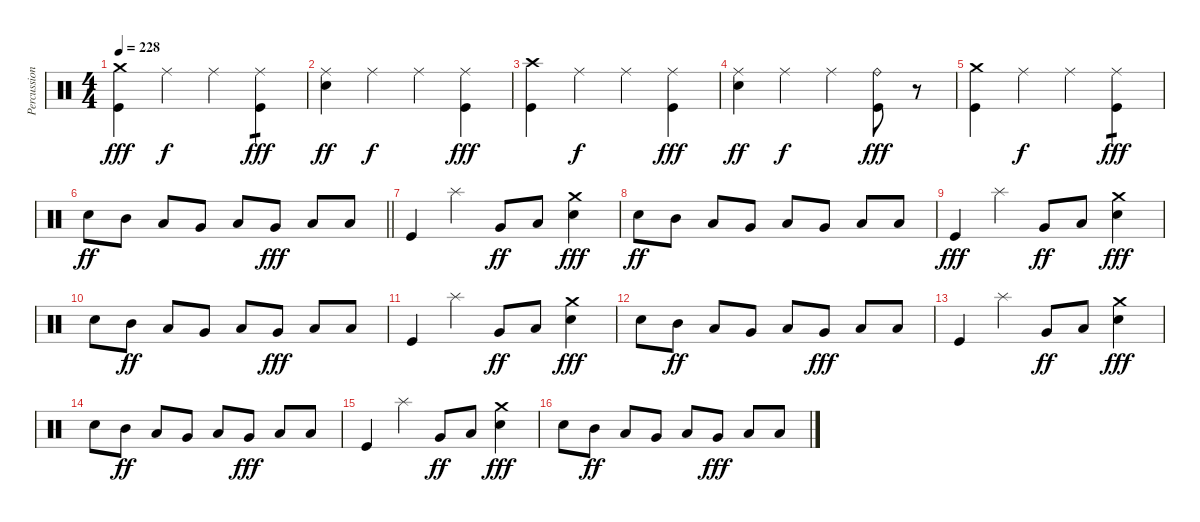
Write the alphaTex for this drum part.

\track ("Percussion" "Percussion") {instrument percussion}
\staff {score}
\articulation defaults
\ts (4 4)
\tempo 228
\clef neutral
\ks c
("Crash medium (hit)" "Kick (hit)").4{dy fff} "Ride (middle)".4{dy f} "Ride (middle)".4 ("Ride (middle)" "Kick (hit)").4{tp 1 dy fff} |
("Ride (middle)" "Snare (hit) 2").4{dy ff} "Ride (middle)".4{dy f} "Ride (middle)".4 ("Ride (middle)" "Kick (hit)").4{dy fff} |
("Crash high (hit)" "Kick (hit)").4 "Ride (middle)".4{dy f} "Ride (middle)".4 ("Ride (middle)" "Kick (hit)").4{dy fff} |
("Ride (middle)" "Snare (hit) 2").4{dy ff} "Ride (middle)".4{dy f} "Ride (middle)".4 ("Ride (bell)" "Kick (hit)").8{dy fff} r.8 |
("Crash medium (hit)" "Kick (hit)").4 "Ride (middle)".4{dy f} "Ride (middle)".4 ("Ride (middle)" "Kick (hit)").4{tp 1 dy fff} |
\barLineRight lightlight "Snare (hit) 2".8{dy ff} "Mid Tom (hit)".8 "Low Tom (hit)".8 "Very Low Tom (hit)".8 "Low Tom (hit)".8 "Very Low Tom (hit)".8{dy fff} "Low Floor Tom (hit)".8 "Low Floor Tom (hit)".8
|
"Kick (hit)".4 "Splash (hit)".4 "Very Low Tom (hit)".8{dy ff} "Low Floor Tom (hit)".8 ("Crash medium (hit)" "Electric Snare (hit)").4{dy fff} |
"Snare (hit) 2".8{dy ff} "Mid Tom (hit)".8 "Low Tom (hit)".8 "Very Low Tom (hit)".8 "Low Tom (hit)".8 "Very Low Tom (hit)".8 "Low Floor Tom (hit)".8 "Low Floor Tom (hit)".8 |
"Kick (hit)".4{dy fff} "Splash (hit)".4 "Very Low Tom (hit)".8{dy ff} "Low Floor Tom (hit)".8 ("Crash medium (hit)" "Electric Snare (hit)").4{dy fff} |
"Snare (hit) 2".8 "Mid Tom (hit)".8{dy ff} "Low Tom (hit)".8 "Very Low Tom (hit)".8 "Low Tom (hit)".8 "Very Low Tom (hit)".8{dy fff} "Low Floor Tom (hit)".8 "Low Floor Tom (hit)".8 |
"Kick (hit)".4 "Splash (hit)".4 "Very Low Tom (hit)".8{dy ff} "Low Floor Tom (hit)".8 ("Crash medium (hit)" "Electric Snare (hit)").4{dy fff} |
"Snare (hit) 2".8 "Mid Tom (hit)".8{dy ff} "Low Tom (hit)".8 "Very Low Tom (hit)".8 "Low Tom (hit)".8 "Very Low Tom (hit)".8{dy fff} "Low Floor Tom (hit)".8 "Low Floor Tom (hit)".8 |
"Kick (hit)".4 "Splash (hit)".4 "Very Low Tom (hit)".8{dy ff} "Low Floor Tom (hit)".8 ("Crash medium (hit)" "Electric Snare (hit)").4{dy fff} |
"Snare (hit) 2".8 "Mid Tom (hit)".8{dy ff} "Low Tom (hit)".8 "Very Low Tom (hit)".8 "Low Tom (hit)".8 "Very Low Tom (hit)".8{dy fff} "Low Floor Tom (hit)".8 "Low Floor Tom (hit)".8 |
"Kick (hit)".4 "Splash (hit)".4 "Very Low Tom (hit)".8{dy ff} "Low Floor Tom (hit)".8 ("Crash medium (hit)" "Electric Snare (hit)").4{dy fff} |
"Snare (hit) 2".8 "Mid Tom (hit)".8{dy ff} "Low Tom (hit)".8 "Very Low Tom (hit)".8 "Low Tom (hit)".8 "Very Low Tom (hit)".8{dy fff} "Low Floor Tom (hit)".8 "Low Floor Tom (hit)".8
